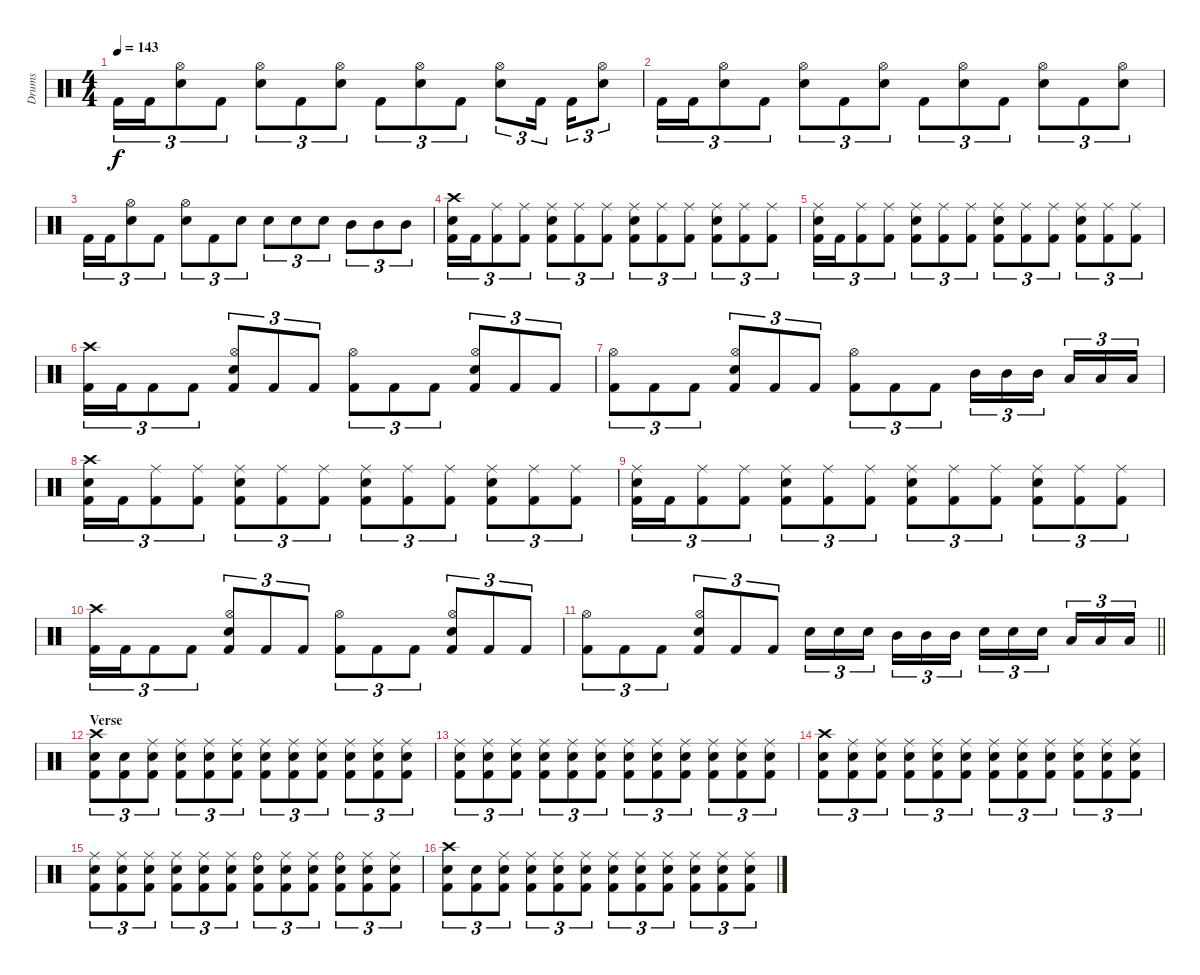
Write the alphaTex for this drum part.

\track ("Drums" "Drums") {instrument percussion}
\staff {score}
\articulation defaults
\ts (4 4)
\tempo 143
\clef neutral
\ks c "Kick (hit) 2".16{tu (3 2) dy f} "Kick (hit) 2".16{tu (3 2)}
("Hi-Hat (open)" "Snare (hit) 2").8{tu (3 2)} "Kick (hit) 2".8{tu (3 2)} ("Hi-Hat (open)" "Snare (hit) 2").8{tu (3 2)} "Kick (hit) 2".8{tu (3 2)} ("Hi-Hat (open)" "Snare (hit) 2").8{tu (3 2)} "Kick (hit) 2".8{tu (3 2)} ("Hi-Hat (open)" "Snare (hit) 2").8{tu (3 2)} "Kick (hit) 2".8{tu (3 2)} ("Hi-Hat (open)" "Snare (hit) 2").8{tu (3 2)} "Kick (hit) 2".16{tu (3 2) beam splitsecondary} "Kick (hit) 2".16{tu (3 2)} ("Hi-Hat (open)" "Snare (hit) 2").8{tu (3 2)} |
"Kick (hit) 2".16{tu (3 2)} "Kick (hit) 2".16{tu (3 2)} ("Hi-Hat (open)" "Snare (hit) 2").8{tu (3 2)} "Kick (hit) 2".8{tu (3 2)} ("Hi-Hat (open)" "Snare (hit) 2").8{tu (3 2)} "Kick (hit) 2".8{tu (3 2)} ("Hi-Hat (open)" "Snare (hit) 2").8{tu (3 2)} "Kick (hit) 2".8{tu (3 2)} ("Hi-Hat (open)" "Snare (hit) 2").8{tu (3 2)} "Kick (hit) 2".8{tu (3 2)} ("Hi-Hat (open)" "Snare (hit) 2").8{tu (3 2)} "Kick (hit) 2".8{tu (3 2)} ("Hi-Hat (open)" "Snare (hit) 2").8{tu (3 2)} |
"Kick (hit) 2".16{tu (3 2)} "Kick (hit) 2".16{tu (3 2)} ("Hi-Hat (open)" "Snare (hit) 2").8{tu (3 2)} "Kick (hit) 2".8{tu (3 2)} ("Hi-Hat (open)" "Snare (hit) 2").8{tu (3 2)} "Kick (hit) 2".8{tu (3 2)} "Snare (hit) 2".8{tu (3 2)} "Snare (hit) 2".8{tu (3 2)} "Snare (hit) 2".8{tu (3 2)} "Snare (hit) 2".8{tu (3 2)} "Mid Tom (hit)".8{tu (3 2)} "Mid Tom (hit)".8{tu (3 2)} "Mid Tom (hit)".8{tu (3 2)} |
("Crash high (hit)" "Snare (hit) 2" "Kick (hit) 2").16{tu (3 2)} "Kick (hit) 2".16{tu (3 2)} ("Ride (middle)" "Kick (hit) 2").8{tu (3 2)} ("Ride (middle)" "Kick (hit) 2").8{tu (3 2)} ("Ride (middle)" "Snare (hit) 2" "Kick (hit) 2").8{tu (3 2)} ("Ride (middle)" "Kick (hit) 2").8{tu (3 2)} ("Ride (middle)" "Kick (hit) 2").8{tu (3 2)} ("Ride (middle)" "Snare (hit) 2" "Kick (hit) 2").8{tu (3 2)} ("Ride (middle)" "Kick (hit) 2").8{tu (3 2)} ("Ride (middle)" "Kick (hit) 2").8{tu (3 2)} ("Ride (middle)" "Snare (hit) 2" "Kick (hit) 2").8{tu (3 2)} ("Ride (middle)" "Kick (hit) 2").8{tu (3 2)} ("Ride (middle)" "Kick (hit) 2").8{tu (3 2)} |
("Ride (middle)" "Snare (hit) 2" "Kick (hit) 2").16{tu (3 2)} "Kick (hit) 2".16{tu (3 2)} ("Ride (middle)" "Kick (hit) 2").8{tu (3 2)} ("Ride (middle)" "Kick (hit) 2").8{tu (3 2)} ("Ride (middle)" "Snare (hit) 2" "Kick (hit) 2").8{tu (3 2)} ("Ride (middle)" "Kick (hit) 2").8{tu (3 2)} ("Ride (middle)" "Kick (hit) 2").8{tu (3 2)} ("Ride (middle)" "Snare (hit) 2" "Kick (hit) 2").8{tu (3 2)} ("Ride (middle)" "Kick (hit) 2").8{tu (3 2)} ("Ride (middle)" "Kick (hit) 2").8{tu (3 2)} ("Ride (middle)" "Snare (hit) 2" "Kick (hit) 2").8{tu (3 2)} ("Ride (middle)" "Kick (hit) 2").8{tu (3 2)} ("Ride (middle)" "Kick (hit) 2").8{tu (3 2)} |
("Crash high (hit)" "Kick (hit) 2").16{tu (3 2)} "Kick (hit) 2".16{tu (3 2)} "Kick (hit) 2".8{tu (3 2)} "Kick (hit) 2".8{tu (3 2)} ("Hi-Hat (open)" "Snare (hit) 2" "Kick (hit) 2").8{tu (3 2)} "Kick (hit) 2".8{tu (3 2)} "Kick (hit) 2".8{tu (3 2)} ("Hi-Hat (open)" "Kick (hit) 2").8{tu (3 2)} "Kick (hit) 2".8{tu (3 2)} "Kick (hit) 2".8{tu (3 2)} ("Hi-Hat (open)" "Snare (hit) 2" "Kick (hit) 2").8{tu (3 2)} "Kick (hit) 2".8{tu (3 2)} "Kick (hit) 2".8{tu (3 2)} |
("Hi-Hat (open)" "Kick (hit) 2").8{tu (3 2)} "Kick (hit) 2".8{tu (3 2)} "Kick (hit) 2".8{tu (3 2)} ("Hi-Hat (open)" "Snare (hit) 2" "Kick (hit) 2").8{tu (3 2)} "Kick (hit) 2".8{tu (3 2)} "Kick (hit) 2".8{tu (3 2)} ("Hi-Hat (open)" "Kick (hit) 2").8{tu (3 2)} "Kick (hit) 2".8{tu (3 2)} "Kick (hit) 2".8{tu (3 2)} "Mid Tom (hit)".16{tu (3 2)} "Mid Tom (hit)".16{tu (3 2)} "Mid Tom (hit)".16{tu (3 2) beam splitsecondary} "Low Tom (hit)".16{tu (3 2)} "Low Tom (hit)".16{tu (3 2)} "Low Tom (hit)".16{tu (3 2)} |
("Crash high (hit)" "Snare (hit) 2" "Kick (hit) 2").16{tu (3 2)} "Kick (hit) 2".16{tu (3 2)} ("Ride (middle)" "Kick (hit) 2").8{tu (3 2)} ("Ride (middle)" "Kick (hit) 2").8{tu (3 2)} ("Ride (middle)" "Snare (hit) 2" "Kick (hit) 2").8{tu (3 2)} ("Ride (middle)" "Kick (hit) 2").8{tu (3 2)} ("Ride (middle)" "Kick (hit) 2").8{tu (3 2)} ("Ride (middle)" "Snare (hit) 2" "Kick (hit) 2").8{tu (3 2)} ("Ride (middle)" "Kick (hit) 2").8{tu (3 2)} ("Ride (middle)" "Kick (hit) 2").8{tu (3 2)} ("Ride (middle)" "Snare (hit) 2" "Kick (hit) 2").8{tu (3 2)} ("Ride (middle)" "Kick (hit) 2").8{tu (3 2)} ("Ride (middle)" "Kick (hit) 2").8{tu (3 2)} |
("Ride (middle)" "Snare (hit) 2" "Kick (hit) 2").16{tu (3 2)} "Kick (hit) 2".16{tu (3 2)} ("Ride (middle)" "Kick (hit) 2").8{tu (3 2)} ("Ride (middle)" "Kick (hit) 2").8{tu (3 2)} ("Ride (middle)" "Snare (hit) 2" "Kick (hit) 2").8{tu (3 2)} ("Ride (middle)" "Kick (hit) 2").8{tu (3 2)} ("Ride (middle)" "Kick (hit) 2").8{tu (3 2)} ("Ride (middle)" "Snare (hit) 2" "Kick (hit) 2").8{tu (3 2)} ("Ride (middle)" "Kick (hit) 2").8{tu (3 2)} ("Ride (middle)" "Kick (hit) 2").8{tu (3 2)} ("Ride (middle)" "Snare (hit) 2" "Kick (hit) 2").8{tu (3 2)} ("Ride (middle)" "Kick (hit) 2").8{tu (3 2)} ("Ride (middle)" "Kick (hit) 2").8{tu (3 2)} |
("Crash high (hit)" "Kick (hit) 2").16{tu (3 2)} "Kick (hit) 2".16{tu (3 2)} "Kick (hit) 2".8{tu (3 2)} "Kick (hit) 2".8{tu (3 2)} ("Hi-Hat (open)" "Snare (hit) 2" "Kick (hit) 2").8{tu (3 2)} "Kick (hit) 2".8{tu (3 2)} "Kick (hit) 2".8{tu (3 2)} ("Hi-Hat (open)" "Kick (hit) 2").8{tu (3 2)} "Kick (hit) 2".8{tu (3 2)} "Kick (hit) 2".8{tu (3 2)} ("Hi-Hat (open)" "Snare (hit) 2" "Kick (hit) 2").8{tu (3 2)} "Kick (hit) 2".8{tu (3 2)} "Kick (hit) 2".8{tu (3 2)} |
\barLineRight lightlight
("Hi-Hat (open)" "Kick (hit) 2").8{tu (3 2)} "Kick (hit) 2".8{tu (3 2)} "Kick (hit) 2".8{tu (3 2)} ("Hi-Hat (open)" "Snare (hit) 2" "Kick (hit) 2").8{tu (3 2)} "Kick (hit) 2".8{tu (3 2)} "Kick (hit) 2".8{tu (3 2)} "Snare (hit) 2".16{tu (3 2)} "Snare (hit) 2".16{tu (3 2)} "Snare (hit) 2".16{tu (3 2) beam splitsecondary} "Mid Tom (hit)".16{tu (3 2)} "Mid Tom (hit)".16{tu (3 2)} "Mid Tom (hit)".16{tu (3 2)} "Snare (hit) 2".16{tu (3 2)} "Snare (hit) 2".16{tu (3 2)} "Snare (hit) 2".16{tu (3 2) beam splitsecondary} "Low Tom (hit)".16{tu (3 2)} "Low Tom (hit)".16{tu (3 2)} "Low Tom (hit)".16{tu (3 2)} |
\section ("" "Verse")
("Crash high (hit)" "Snare (hit) 2" "Kick (hit) 2").8{tu (3 2)} ("Snare (hit) 2" "Kick (hit) 2").8{tu (3 2)} ("Ride (middle)" "Snare (hit) 2" "Kick (hit) 2").8{tu (3 2)} ("Ride (middle)" "Snare (hit) 2" "Kick (hit) 2").8{tu (3 2)} ("Ride (middle)" "Snare (hit) 2" "Kick (hit) 2").8{tu (3 2)} ("Ride (middle)" "Snare (hit) 2" "Kick (hit) 2").8{tu (3 2)} ("Ride (middle)" "Snare (hit) 2" "Kick (hit) 2").8{tu (3 2)} ("Ride (middle)" "Snare (hit) 2" "Kick (hit) 2").8{tu (3 2)} ("Ride (middle)" "Snare (hit) 2" "Kick (hit) 2").8{tu (3 2)} ("Ride (middle)" "Snare (hit) 2" "Kick (hit) 2").8{tu (3 2)} ("Ride (middle)" "Snare (hit) 2" "Kick (hit) 2").8{tu (3 2)} ("Ride (middle)" "Snare (hit) 2" "Kick (hit) 2").8{tu (3 2)} |
("Ride (middle)" "Snare (hit) 2" "Kick (hit) 2").8{tu (3 2)} ("Ride (middle)" "Snare (hit) 2" "Kick (hit) 2").8{tu (3 2)} ("Ride (middle)" "Snare (hit) 2" "Kick (hit) 2").8{tu (3 2)} ("Ride (middle)" "Snare (hit) 2" "Kick (hit) 2").8{tu (3 2)} ("Ride (middle)" "Snare (hit) 2" "Kick (hit) 2").8{tu (3 2)} ("Ride (middle)" "Snare (hit) 2" "Kick (hit) 2").8{tu (3 2)} ("Ride (middle)" "Snare (hit) 2" "Kick (hit) 2").8{tu (3 2)} ("Ride (middle)" "Snare (hit) 2" "Kick (hit) 2").8{tu (3 2)} ("Ride (middle)" "Snare (hit) 2" "Kick (hit) 2").8{tu (3 2)} ("Ride (middle)" "Snare (hit) 2" "Kick (hit) 2").8{tu (3 2)} ("Ride (middle)" "Snare (hit) 2" "Kick (hit) 2").8{tu (3 2)} ("Ride (middle)" "Snare (hit) 2" "Kick (hit) 2").8{tu (3 2)} |
("Crash high (hit)" "Snare (hit) 2" "Kick (hit) 2").8{tu (3 2)} ("Ride (middle)" "Snare (hit) 2" "Kick (hit) 2").8{tu (3 2)} ("Ride (middle)" "Snare (hit) 2" "Kick (hit) 2").8{tu (3 2)} ("Ride (middle)" "Snare (hit) 2" "Kick (hit) 2").8{tu (3 2)} ("Ride (middle)" "Snare (hit) 2" "Kick (hit) 2").8{tu (3 2)} ("Ride (middle)" "Snare (hit) 2" "Kick (hit) 2").8{tu (3 2)} ("Ride (middle)" "Snare (hit) 2" "Kick (hit) 2").8{tu (3 2)} ("Ride (middle)" "Snare (hit) 2" "Kick (hit) 2").8{tu (3 2)} ("Ride (middle)" "Snare (hit) 2" "Kick (hit) 2").8{tu (3 2)} ("Ride (middle)" "Snare (hit) 2" "Kick (hit) 2").8{tu (3 2)} ("Ride (middle)" "Snare (hit) 2" "Kick (hit) 2").8{tu (3 2)} ("Ride (middle)" "Snare (hit) 2" "Kick (hit) 2").8{tu (3 2)} |
("Ride (middle)" "Snare (hit) 2" "Kick (hit) 2").8{tu (3 2)} ("Ride (middle)" "Snare (hit) 2" "Kick (hit) 2").8{tu (3 2)} ("Ride (middle)" "Snare (hit) 2" "Kick (hit) 2").8{tu (3 2)} ("Ride (middle)" "Snare (hit) 2" "Kick (hit) 2").8{tu (3 2)} ("Ride (middle)" "Snare (hit) 2" "Kick (hit) 2").8{tu (3 2)} ("Ride (middle)" "Snare (hit) 2" "Kick (hit) 2").8{tu (3 2)} ("Ride (bell)" "Snare (hit) 2" "Kick (hit) 2").8{tu (3 2)} ("Ride (middle)" "Snare (hit) 2" "Kick (hit) 2").8{tu (3 2)} ("Ride (middle)" "Snare (hit) 2" "Kick (hit) 2").8{tu (3 2)} ("Ride (bell)" "Snare (hit) 2" "Kick (hit) 2").8{tu (3 2)} ("Ride (middle)" "Snare (hit) 2" "Kick (hit) 2").8{tu (3 2)} ("Ride (middle)" "Snare (hit) 2" "Kick (hit) 2").8{tu (3 2)} |
("Crash high (hit)" "Snare (hit) 2" "Kick (hit) 2").8{tu (3 2)} ("Snare (hit) 2" "Kick (hit) 2").8{tu (3 2)} ("Ride (middle)" "Snare (hit) 2" "Kick (hit) 2").8{tu (3 2)} ("Ride (middle)" "Snare (hit) 2" "Kick (hit) 2").8{tu (3 2)} ("Ride (middle)" "Snare (hit) 2" "Kick (hit) 2").8{tu (3 2)} ("Ride (middle)" "Snare (hit) 2" "Kick (hit) 2").8{tu (3 2)} ("Ride (middle)" "Snare (hit) 2" "Kick (hit) 2").8{tu (3 2)} ("Ride (middle)" "Snare (hit) 2" "Kick (hit) 2").8{tu (3 2)} ("Ride (middle)" "Snare (hit) 2" "Kick (hit) 2").8{tu (3 2)} ("Ride (middle)" "Snare (hit) 2" "Kick (hit) 2").8{tu (3 2)} ("Ride (middle)" "Snare (hit) 2" "Kick (hit) 2").8{tu (3 2)} ("Ride (middle)" "Snare (hit) 2" "Kick (hit) 2").8{tu (3 2)}
